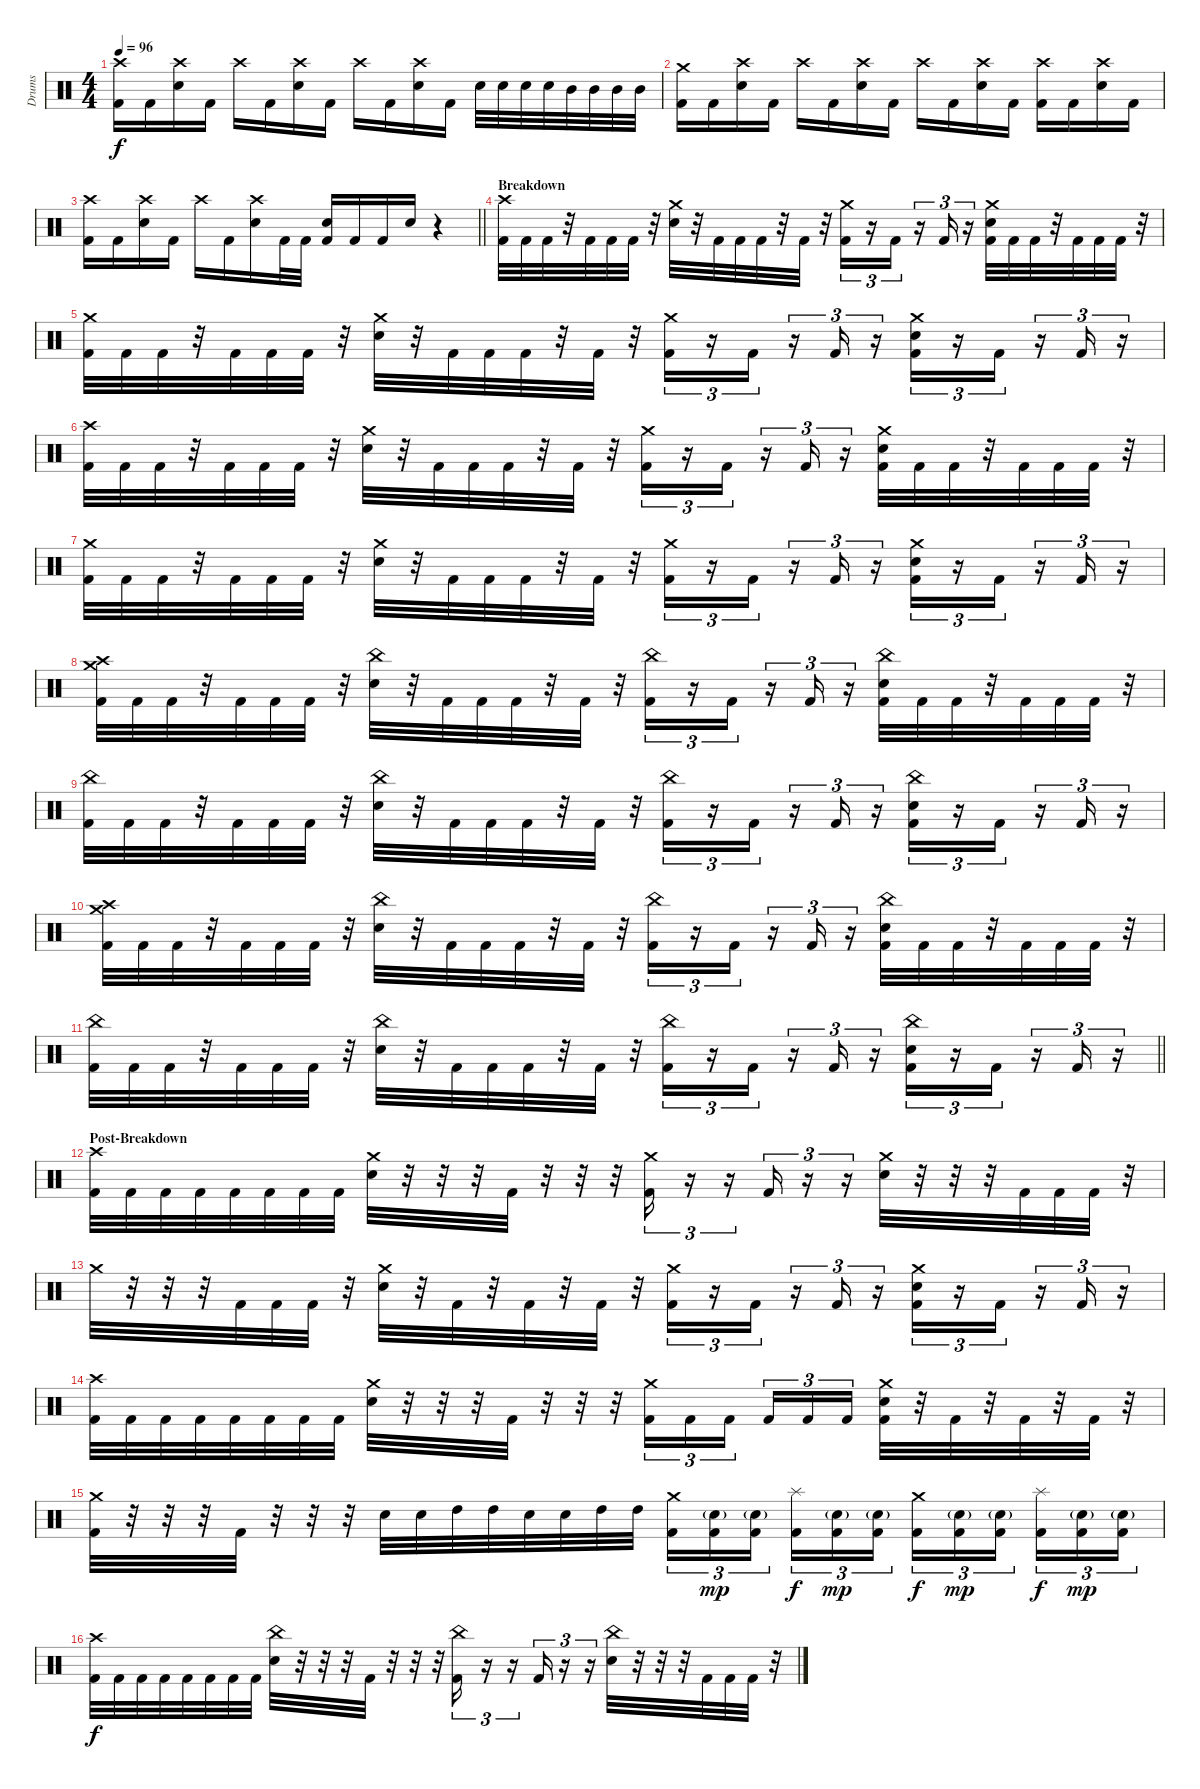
\track ("Drums" "Drums") {instrument percussion}
\staff {score}
\articulation defaults
\ts (4 4)
\tempo 96
\clef neutral
\ks c
("Crash high (hit)" "Kick (hit) 2").16{dy f} "Kick (hit) 2".16 ("Crash high (hit)" "Snare (hit) 2").16 "Kick (hit) 2".16 "Crash high (hit)".16 "Kick (hit) 2".16 ("Crash high (hit)" "Snare (hit) 2").16 "Kick (hit) 2".16 "Crash high (hit)".16 "Kick (hit) 2".16 ("Crash high (hit)" "Snare (hit) 2").16 "Kick (hit) 2".16 "Snare (hit) 2".32 "Snare (hit) 2".32 "Snare (hit) 2".32 "Snare (hit) 2".32 "Mid Tom (hit)".32 "Mid Tom (hit)".32 "Mid Tom (hit)".32 "Mid Tom (hit)".32 |
("Crash medium (hit)" "Kick (hit) 2").16 "Kick (hit) 2".16 ("Crash high (hit)" "Snare (hit) 2").16 "Kick (hit) 2".16 "Crash high (hit)".16 "Kick (hit) 2".16 ("Crash high (hit)" "Snare (hit) 2").16 "Kick (hit) 2".16 "Crash high (hit)".16 "Kick (hit) 2".16 ("Crash high (hit)" "Snare (hit) 2").16 "Kick (hit) 2".16 ("Crash high (hit)" "Kick (hit) 2").16 "Kick (hit) 2".16 ("Crash high (hit)" "Snare (hit) 2").16 "Kick (hit) 2".16 |
\barLineRight lightlight
("Crash high (hit)" "Kick (hit) 2").16 "Kick (hit) 2".16 ("Crash high (hit)" "Snare (hit) 2").16 "Kick (hit) 2".16 "Crash high (hit)".16 "Kick (hit) 2".16 ("Crash high (hit)" "Snare (hit) 2").16 "Kick (hit) 2".32 "Kick (hit) 2".32 ("Snare (hit) 2" "Kick (hit) 2").16 "Kick (hit) 2".16 "Kick (hit) 2".16 "Snare (hit) 2".16 r.4 |
\section ("" "Breakdown")
("Crash high (hit)" "Kick (hit) 2").32 "Kick (hit) 2".32 "Kick (hit) 2".32 r.32 "Kick (hit) 2".32 "Kick (hit) 2".32 "Kick (hit) 2".32 r.32 ("Crash medium (hit)" "Snare (hit) 2").32 r.32 "Kick (hit) 2".32 "Kick (hit) 2".32 "Kick (hit) 2".32 r.32 "Kick (hit) 2".32 r.32 ("Crash medium (hit)" "Kick (hit) 2").16{tu (3 2)} r.16{tu (3 2)} "Kick (hit) 2".16{tu (3 2)} r.16{tu (3 2)} "Kick (hit) 2".16{tu (3 2)} r.16{tu (3 2)} ("Crash medium (hit)" "Snare (hit) 2" "Kick (hit) 2").32 "Kick (hit) 2".32 "Kick (hit) 2".32 r.32 "Kick (hit) 2".32 "Kick (hit) 2".32 "Kick (hit) 2".32 r.32 |
("Crash medium (hit)" "Kick (hit) 2").32 "Kick (hit) 2".32 "Kick (hit) 2".32 r.32 "Kick (hit) 2".32 "Kick (hit) 2".32 "Kick (hit) 2".32 r.32 ("Crash medium (hit)" "Snare (hit) 2").32 r.32 "Kick (hit) 2".32 "Kick (hit) 2".32 "Kick (hit) 2".32 r.32 "Kick (hit) 2".32 r.32 ("Crash medium (hit)" "Kick (hit) 2").16{tu (3 2)} r.16{tu (3 2)} "Kick (hit) 2".16{tu (3 2)} r.16{tu (3 2)} "Kick (hit) 2".16{tu (3 2)} r.16{tu (3 2)} ("Crash medium (hit)" "Snare (hit) 2" "Kick (hit) 2").16{tu (3 2)} r.16{tu (3 2)} "Kick (hit) 2".16{tu (3 2)} r.16{tu (3 2)} "Kick (hit) 2".16{tu (3 2)} r.16{tu (3 2)} |
("Crash high (hit)" "Kick (hit) 2").32 "Kick (hit) 2".32 "Kick (hit) 2".32 r.32 "Kick (hit) 2".32 "Kick (hit) 2".32 "Kick (hit) 2".32 r.32 ("Crash medium (hit)" "Snare (hit) 2").32 r.32 "Kick (hit) 2".32 "Kick (hit) 2".32 "Kick (hit) 2".32 r.32 "Kick (hit) 2".32 r.32 ("Crash medium (hit)" "Kick (hit) 2").16{tu (3 2)} r.16{tu (3 2)} "Kick (hit) 2".16{tu (3 2)} r.16{tu (3 2)} "Kick (hit) 2".16{tu (3 2)} r.16{tu (3 2)} ("Crash medium (hit)" "Snare (hit) 2" "Kick (hit) 2").32 "Kick (hit) 2".32 "Kick (hit) 2".32 r.32 "Kick (hit) 2".32 "Kick (hit) 2".32 "Kick (hit) 2".32 r.32 |
("Crash medium (hit)" "Kick (hit) 2").32 "Kick (hit) 2".32 "Kick (hit) 2".32 r.32 "Kick (hit) 2".32 "Kick (hit) 2".32 "Kick (hit) 2".32 r.32 ("Crash medium (hit)" "Snare (hit) 2").32 r.32 "Kick (hit) 2".32 "Kick (hit) 2".32 "Kick (hit) 2".32 r.32 "Kick (hit) 2".32 r.32 ("Crash medium (hit)" "Kick (hit) 2").16{tu (3 2)} r.16{tu (3 2)} "Kick (hit) 2".16{tu (3 2)} r.16{tu (3 2)} "Kick (hit) 2".16{tu (3 2)} r.16{tu (3 2)} ("Crash medium (hit)" "Snare (hit) 2" "Kick (hit) 2").16{tu (3 2)} r.16{tu (3 2)} "Kick (hit) 2".16{tu (3 2)} r.16{tu (3 2)} "Kick (hit) 2".16{tu (3 2)} r.16{tu (3 2)} |
("Crash high (hit)" "Crash medium (hit)" "Kick (hit) 2").32 "Kick (hit) 2".32 "Kick (hit) 2".32 r.32 "Kick (hit) 2".32 "Kick (hit) 2".32 "Kick (hit) 2".32 r.32 ("China (hit)" "Snare (hit) 2").32 r.32 "Kick (hit) 2".32 "Kick (hit) 2".32 "Kick (hit) 2".32 r.32 "Kick (hit) 2".32 r.32 ("China (hit)" "Kick (hit) 2").16{tu (3 2)} r.16{tu (3 2)} "Kick (hit) 2".16{tu (3 2)} r.16{tu (3 2)} "Kick (hit) 2".16{tu (3 2)} r.16{tu (3 2)} ("China (hit)" "Snare (hit) 2" "Kick (hit) 2").32 "Kick (hit) 2".32 "Kick (hit) 2".32 r.32 "Kick (hit) 2".32 "Kick (hit) 2".32 "Kick (hit) 2".32 r.32 |
("China (hit)" "Kick (hit) 2").32 "Kick (hit) 2".32 "Kick (hit) 2".32 r.32 "Kick (hit) 2".32 "Kick (hit) 2".32 "Kick (hit) 2".32 r.32 ("China (hit)" "Snare (hit) 2").32 r.32 "Kick (hit) 2".32 "Kick (hit) 2".32 "Kick (hit) 2".32 r.32 "Kick (hit) 2".32 r.32 ("China (hit)" "Kick (hit) 2").16{tu (3 2)} r.16{tu (3 2)} "Kick (hit) 2".16{tu (3 2)} r.16{tu (3 2)} "Kick (hit) 2".16{tu (3 2)} r.16{tu (3 2)} ("China (hit)" "Snare (hit) 2" "Kick (hit) 2").16{tu (3 2)} r.16{tu (3 2)} "Kick (hit) 2".16{tu (3 2)} r.16{tu (3 2)} "Kick (hit) 2".16{tu (3 2)} r.16{tu (3 2)} |
("Crash high (hit)" "Crash medium (hit)" "Kick (hit) 2").32 "Kick (hit) 2".32 "Kick (hit) 2".32 r.32 "Kick (hit) 2".32 "Kick (hit) 2".32 "Kick (hit) 2".32 r.32 ("China (hit)" "Snare (hit) 2").32 r.32 "Kick (hit) 2".32 "Kick (hit) 2".32 "Kick (hit) 2".32 r.32 "Kick (hit) 2".32 r.32 ("China (hit)" "Kick (hit) 2").16{tu (3 2)} r.16{tu (3 2)} "Kick (hit) 2".16{tu (3 2)} r.16{tu (3 2)} "Kick (hit) 2".16{tu (3 2)} r.16{tu (3 2)} ("China (hit)" "Snare (hit) 2" "Kick (hit) 2").32 "Kick (hit) 2".32 "Kick (hit) 2".32 r.32 "Kick (hit) 2".32 "Kick (hit) 2".32 "Kick (hit) 2".32 r.32 |
\barLineRight lightlight
("China (hit)" "Kick (hit) 2").32 "Kick (hit) 2".32 "Kick (hit) 2".32 r.32 "Kick (hit) 2".32 "Kick (hit) 2".32 "Kick (hit) 2".32 r.32 ("China (hit)" "Snare (hit) 2").32 r.32 "Kick (hit) 2".32 "Kick (hit) 2".32 "Kick (hit) 2".32 r.32 "Kick (hit) 2".32 r.32 ("China (hit)" "Kick (hit) 2").16{tu (3 2)} r.16{tu (3 2)} "Kick (hit) 2".16{tu (3 2)} r.16{tu (3 2)} "Kick (hit) 2".16{tu (3 2)} r.16{tu (3 2)} ("China (hit)" "Snare (hit) 2" "Kick (hit) 2").16{tu (3 2)} r.16{tu (3 2)} "Kick (hit) 2".16{tu (3 2)} r.16{tu (3 2)} "Kick (hit) 2".16{tu (3 2)} r.16{tu (3 2)} |
\section ("" "Post-Breakdown")
("Crash high (hit)" "Kick (hit) 2").32 "Kick (hit) 2".32 "Kick (hit) 2".32 "Kick (hit) 2".32 "Kick (hit) 2".32 "Kick (hit) 2".32 "Kick (hit) 2".32 "Kick (hit) 2".32 ("Crash medium (hit)" "Snare (hit) 2").32 r.32 r.32 r.32 "Kick (hit) 2".32 r.32 r.32 r.32 ("Crash medium (hit)" "Kick (hit) 2").16{tu (3 2)} r.16{tu (3 2)} r.16{tu (3 2)} "Kick (hit) 2".16{tu (3 2)} r.16{tu (3 2)} r.16{tu (3 2)} ("Crash medium (hit)" "Snare (hit) 2").32 r.32 r.32 r.32 "Kick (hit) 2".32 "Kick (hit) 2".32 "Kick (hit) 2".32 r.32 |
"Crash medium (hit)".32 r.32 r.32 r.32 "Kick (hit) 2".32 "Kick (hit) 2".32 "Kick (hit) 2".32 r.32 ("Crash medium (hit)" "Snare (hit) 2").32 r.32 "Kick (hit) 2".32 r.32 "Kick (hit) 2".32 r.32 "Kick (hit) 2".32 r.32 ("Crash medium (hit)" "Kick (hit) 2").16{tu (3 2)} r.16{tu (3 2)} "Kick (hit) 2".16{tu (3 2)} r.16{tu (3 2)} "Kick (hit) 2".16{tu (3 2)} r.16{tu (3 2)} ("Crash medium (hit)" "Snare (hit) 2" "Kick (hit) 2").16{tu (3 2)} r.16{tu (3 2)} "Kick (hit) 2".16{tu (3 2)} r.16{tu (3 2)} "Kick (hit) 2".16{tu (3 2)} r.16{tu (3 2)} |
("Crash high (hit)" "Kick (hit) 2").32 "Kick (hit) 2".32 "Kick (hit) 2".32 "Kick (hit) 2".32 "Kick (hit) 2".32 "Kick (hit) 2".32 "Kick (hit) 2".32 "Kick (hit) 2".32 ("Crash medium (hit)" "Snare (hit) 2").32 r.32 r.32 r.32 "Kick (hit) 2".32 r.32 r.32 r.32 ("Crash medium (hit)" "Kick (hit) 2").16{tu (3 2)} "Kick (hit) 2".16{tu (3 2)} "Kick (hit) 2".16{tu (3 2) beam splitsecondary} "Kick (hit) 2".16{tu (3 2)} "Kick (hit) 2".16{tu (3 2)} "Kick (hit) 2".16{tu (3 2)} ("Crash medium (hit)" "Snare (hit) 2" "Kick (hit) 2").32 r.32 "Kick (hit) 2".32 r.32 "Kick (hit) 2".32 r.32 "Kick (hit) 2".32 r.32 |
("Crash medium (hit)" "Kick (hit) 2").32 r.32 r.32 r.32 "Kick (hit) 2".32 r.32 r.32 r.32 "Snare (hit) 2".32 "Snare (hit) 2".32 "High Tom (hit)".32 "High Tom (hit)".32 "Snare (hit) 2".32 "Snare (hit) 2".32 "High Tom (hit)".32 "High Tom (hit)".32 ("Crash medium (hit)" "Kick (hit) 2").16{tu (3 2)} ("Snare (hit) 2"{g} "Kick (hit) 2").16{tu (3 2) dy mp} ("Snare (hit) 2"{g} "Kick (hit) 2").16{tu (3 2) beam splitsecondary} ("Splash (hit)" "Kick (hit) 2").16{tu (3 2) dy f} ("Snare (hit) 2"{g} "Kick (hit) 2").16{tu (3 2) dy mp} ("Snare (hit) 2"{g} "Kick (hit) 2").16{tu (3 2)} ("Crash medium (hit)" "Kick (hit) 2").16{tu (3 2) dy f} ("Snare (hit) 2"{g} "Kick (hit) 2").16{tu (3 2) dy mp} ("Snare (hit) 2"{g} "Kick (hit) 2").16{tu (3 2) beam splitsecondary} ("Splash (hit)" "Kick (hit) 2").16{tu (3 2) dy f} ("Snare (hit) 2"{g} "Kick (hit) 2").16{tu (3 2) dy mp} ("Snare (hit) 2"{g} "Kick (hit) 2").16{tu (3 2)} |
("Crash high (hit)" "Kick (hit) 2").32{dy f} "Kick (hit) 2".32 "Kick (hit) 2".32 "Kick (hit) 2".32 "Kick (hit) 2".32 "Kick (hit) 2".32 "Kick (hit) 2".32 "Kick (hit) 2".32 ("China (hit)" "Snare (hit) 2").32 r.32 r.32 r.32 "Kick (hit) 2".32 r.32 r.32 r.32 ("China (hit)" "Kick (hit) 2").16{tu (3 2)} r.16{tu (3 2)} r.16{tu (3 2)} "Kick (hit) 2".16{tu (3 2)} r.16{tu (3 2)} r.16{tu (3 2)} ("China (hit)" "Snare (hit) 2").32 r.32 r.32 r.32 "Kick (hit) 2".32 "Kick (hit) 2".32 "Kick (hit) 2".32 r.32
